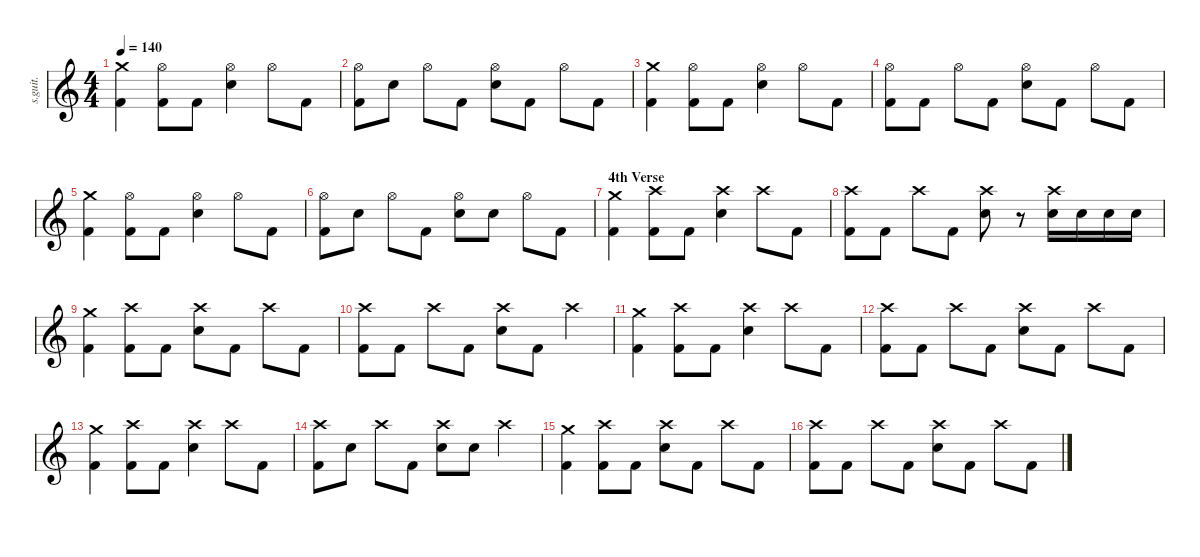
\defaultSystemsLayout 4
\hideDynamics
\bracketExtendMode nobrackets
\track ("Abe Cunningham" "s.guit.") {instrument percussion}
\staff {score}
\articulation defaults
\ts (4 4)
\tempo 140
\clef g2
\ks c
("Crash medium (hit)" "Kick (hit) 2").4{lyrics (0 "") lyrics (1 "") lyrics (2 "") lyrics (3 "") lyrics (4 "") dy fff} ("Hi-Hat (open)" "Kick (hit) 2").8{lyrics (0 "") lyrics (1 "") lyrics (2 "") lyrics (3 "") lyrics (4 "")} "Kick (hit) 2".8{lyrics (0 "") lyrics (1 "") lyrics (2 "") lyrics (3 "") lyrics (4 "")} ("Hi-Hat (open)" "Snare (hit) 2").4{lyrics (0 "") lyrics (1 "") lyrics (2 "") lyrics (3 "") lyrics (4 "")} "Hi-Hat (open)".8{lyrics (0 "") lyrics (1 "") lyrics (2 "") lyrics (3 "") lyrics (4 "")} "Kick (hit) 2".8{lyrics (0 "") lyrics (1 "") lyrics (2 "") lyrics (3 "") lyrics (4 "")} |
("Hi-Hat (open)" "Kick (hit) 2").8{lyrics (0 "") lyrics (1 "") lyrics (2 "") lyrics (3 "") lyrics (4 "")} "Snare (hit) 2".8{lyrics (0 "") lyrics (1 "") lyrics (2 "") lyrics (3 "") lyrics (4 "")} "Hi-Hat (open)".8{lyrics (0 "") lyrics (1 "") lyrics (2 "") lyrics (3 "") lyrics (4 "")} "Kick (hit) 2".8{lyrics (0 "") lyrics (1 "") lyrics (2 "") lyrics (3 "") lyrics (4 "")} ("Hi-Hat (open)" "Snare (hit) 2").8{lyrics (0 "") lyrics (1 "") lyrics (2 "") lyrics (3 "") lyrics (4 "")} "Kick (hit) 2".8{lyrics (0 "") lyrics (1 "") lyrics (2 "") lyrics (3 "") lyrics (4 "")} "Hi-Hat (open)".8{lyrics (0 "") lyrics (1 "") lyrics (2 "") lyrics (3 "") lyrics (4 "")} "Kick (hit) 2".8{lyrics (0 "") lyrics (1 "") lyrics (2 "") lyrics (3 "") lyrics (4 "")} |
("Crash medium (hit)" "Kick (hit) 2").4{lyrics (0 "") lyrics (1 "") lyrics (2 "") lyrics (3 "") lyrics (4 "")} ("Hi-Hat (open)" "Kick (hit) 2").8{lyrics (0 "") lyrics (1 "") lyrics (2 "") lyrics (3 "") lyrics (4 "")} "Kick (hit) 2".8{lyrics (0 "") lyrics (1 "") lyrics (2 "") lyrics (3 "") lyrics (4 "")} ("Hi-Hat (open)" "Snare (hit) 2").4{lyrics (0 "") lyrics (1 "") lyrics (2 "") lyrics (3 "") lyrics (4 "")} "Hi-Hat (open)".8{lyrics (0 "") lyrics (1 "") lyrics (2 "") lyrics (3 "") lyrics (4 "")} "Kick (hit) 2".8{lyrics (0 "") lyrics (1 "") lyrics (2 "") lyrics (3 "") lyrics (4 "")} |
("Hi-Hat (open)" "Kick (hit) 2").8{lyrics (0 "") lyrics (1 "") lyrics (2 "") lyrics (3 "") lyrics (4 "")} "Kick (hit) 2".8{lyrics (0 "") lyrics (1 "") lyrics (2 "") lyrics (3 "") lyrics (4 "")} "Hi-Hat (open)".8{lyrics (0 "") lyrics (1 "") lyrics (2 "") lyrics (3 "") lyrics (4 "")} "Kick (hit) 2".8{lyrics (0 "") lyrics (1 "") lyrics (2 "") lyrics (3 "") lyrics (4 "")} ("Hi-Hat (open)" "Snare (hit) 2").8{lyrics (0 "") lyrics (1 "") lyrics (2 "") lyrics (3 "") lyrics (4 "")} "Kick (hit) 2".8{lyrics (0 "") lyrics (1 "") lyrics (2 "") lyrics (3 "") lyrics (4 "")} "Hi-Hat (open)".8{lyrics (0 "") lyrics (1 "") lyrics (2 "") lyrics (3 "") lyrics (4 "")} "Kick (hit) 2".8{lyrics (0 "") lyrics (1 "") lyrics (2 "") lyrics (3 "") lyrics (4 "")} |
("Crash medium (hit)" "Kick (hit) 2").4{lyrics (0 "") lyrics (1 "") lyrics (2 "") lyrics (3 "") lyrics (4 "")} ("Hi-Hat (open)" "Kick (hit) 2").8{lyrics (0 "") lyrics (1 "") lyrics (2 "") lyrics (3 "") lyrics (4 "")} "Kick (hit) 2".8{lyrics (0 "") lyrics (1 "") lyrics (2 "") lyrics (3 "") lyrics (4 "")} ("Hi-Hat (open)" "Snare (hit) 2").4{lyrics (0 "") lyrics (1 "") lyrics (2 "") lyrics (3 "") lyrics (4 "")} "Hi-Hat (open)".8{lyrics (0 "") lyrics (1 "") lyrics (2 "") lyrics (3 "") lyrics (4 "")} "Kick (hit) 2".8{lyrics (0 "") lyrics (1 "") lyrics (2 "") lyrics (3 "") lyrics (4 "")} |
("Hi-Hat (open)" "Kick (hit) 2").8{lyrics (0 "") lyrics (1 "") lyrics (2 "") lyrics (3 "") lyrics (4 "")} "Snare (hit) 2".8{lyrics (0 "") lyrics (1 "") lyrics (2 "") lyrics (3 "") lyrics (4 "")} "Hi-Hat (open)".8{lyrics (0 "") lyrics (1 "") lyrics (2 "") lyrics (3 "") lyrics (4 "")} "Kick (hit) 2".8{lyrics (0 "") lyrics (1 "") lyrics (2 "") lyrics (3 "") lyrics (4 "")} ("Hi-Hat (open)" "Snare (hit) 2").8{lyrics (0 "") lyrics (1 "") lyrics (2 "") lyrics (3 "") lyrics (4 "")} "Snare (hit) 2".8{lyrics (0 "") lyrics (1 "") lyrics (2 "") lyrics (3 "") lyrics (4 "")} "Hi-Hat (open)".8{lyrics (0 "") lyrics (1 "") lyrics (2 "") lyrics (3 "") lyrics (4 "")} "Kick (hit) 2".8{lyrics (0 "") lyrics (1 "") lyrics (2 "") lyrics (3 "") lyrics (4 "")} |
\section ("" "4th Verse")
("Crash medium (hit)" "Kick (hit) 2").4{lyrics (0 "") lyrics (1 "") lyrics (2 "") lyrics (3 "") lyrics (4 "")} ("Crash high (hit)" "Kick (hit) 2").8{lyrics (0 "") lyrics (1 "") lyrics (2 "") lyrics (3 "") lyrics (4 "")} "Kick (hit) 2".8{lyrics (0 "") lyrics (1 "") lyrics (2 "") lyrics (3 "") lyrics (4 "")} ("Crash high (hit)" "Snare (hit) 2").4{lyrics (0 "") lyrics (1 "") lyrics (2 "") lyrics (3 "") lyrics (4 "")} "Crash high (hit)".8{lyrics (0 "") lyrics (1 "") lyrics (2 "") lyrics (3 "") lyrics (4 "")} "Kick (hit) 2".8{lyrics (0 "") lyrics (1 "") lyrics (2 "") lyrics (3 "") lyrics (4 "")} |
("Crash high (hit)" "Kick (hit) 2").8{lyrics (0 "") lyrics (1 "") lyrics (2 "") lyrics (3 "") lyrics (4 "")} "Kick (hit) 2".8{lyrics (0 "") lyrics (1 "") lyrics (2 "") lyrics (3 "") lyrics (4 "")} "Crash high (hit)".8{lyrics (0 "") lyrics (1 "") lyrics (2 "") lyrics (3 "") lyrics (4 "")} "Kick (hit) 2".8{lyrics (0 "") lyrics (1 "") lyrics (2 "") lyrics (3 "") lyrics (4 "")} ("Crash high (hit)" "Snare (hit) 2").8{lyrics (0 "") lyrics (1 "") lyrics (2 "") lyrics (3 "") lyrics (4 "")} r.8 ("Crash high (hit)" "Snare (hit) 2").16{lyrics (0 "") lyrics (1 "") lyrics (2 "") lyrics (3 "") lyrics (4 "")} "Snare (hit) 2".16{lyrics (0 "") lyrics (1 "") lyrics (2 "") lyrics (3 "") lyrics (4 "")} "Snare (hit) 2".16{lyrics (0 "") lyrics (1 "") lyrics (2 "") lyrics (3 "") lyrics (4 "")} "Snare (hit) 2".16{lyrics (0 "") lyrics (1 "") lyrics (2 "") lyrics (3 "") lyrics (4 "")} |
("Crash medium (hit)" "Kick (hit) 2").4{lyrics (0 "") lyrics (1 "") lyrics (2 "") lyrics (3 "") lyrics (4 "")} ("Crash high (hit)" "Kick (hit) 2").8{lyrics (0 "") lyrics (1 "") lyrics (2 "") lyrics (3 "") lyrics (4 "")} "Kick (hit) 2".8{lyrics (0 "") lyrics (1 "") lyrics (2 "") lyrics (3 "") lyrics (4 "")} ("Crash high (hit)" "Snare (hit) 2").8{lyrics (0 "") lyrics (1 "") lyrics (2 "") lyrics (3 "") lyrics (4 "")} "Kick (hit) 2".8{lyrics (0 "") lyrics (1 "") lyrics (2 "") lyrics (3 "") lyrics (4 "")} "Crash high (hit)".8{lyrics (0 "") lyrics (1 "") lyrics (2 "") lyrics (3 "") lyrics (4 "")} "Kick (hit) 2".8{lyrics (0 "") lyrics (1 "") lyrics (2 "") lyrics (3 "") lyrics (4 "")} |
("Crash high (hit)" "Kick (hit) 2").8{lyrics (0 "") lyrics (1 "") lyrics (2 "") lyrics (3 "") lyrics (4 "")} "Kick (hit) 2".8{lyrics (0 "") lyrics (1 "") lyrics (2 "") lyrics (3 "") lyrics (4 "")} "Crash high (hit)".8{lyrics (0 "") lyrics (1 "") lyrics (2 "") lyrics (3 "") lyrics (4 "")} "Kick (hit) 2".8{lyrics (0 "") lyrics (1 "") lyrics (2 "") lyrics (3 "") lyrics (4 "")} ("Crash high (hit)" "Snare (hit) 2").8{lyrics (0 "") lyrics (1 "") lyrics (2 "") lyrics (3 "") lyrics (4 "")} "Kick (hit) 2".8{lyrics (0 "") lyrics (1 "") lyrics (2 "") lyrics (3 "") lyrics (4 "")} "Crash high (hit)".4{lyrics (0 "") lyrics (1 "") lyrics (2 "") lyrics (3 "") lyrics (4 "")} |
("Crash medium (hit)" "Kick (hit) 2").4{lyrics (0 "") lyrics (1 "") lyrics (2 "") lyrics (3 "") lyrics (4 "")} ("Crash high (hit)" "Kick (hit) 2").8{lyrics (0 "") lyrics (1 "") lyrics (2 "") lyrics (3 "") lyrics (4 "")} "Kick (hit) 2".8{lyrics (0 "") lyrics (1 "") lyrics (2 "") lyrics (3 "") lyrics (4 "")} ("Crash high (hit)" "Snare (hit) 2").4{lyrics (0 "") lyrics (1 "") lyrics (2 "") lyrics (3 "") lyrics (4 "")} "Crash high (hit)".8{lyrics (0 "") lyrics (1 "") lyrics (2 "") lyrics (3 "") lyrics (4 "")} "Kick (hit) 2".8{lyrics (0 "") lyrics (1 "") lyrics (2 "") lyrics (3 "") lyrics (4 "")} |
("Crash high (hit)" "Kick (hit) 2").8{lyrics (0 "") lyrics (1 "") lyrics (2 "") lyrics (3 "") lyrics (4 "")} "Kick (hit) 2".8{lyrics (0 "") lyrics (1 "") lyrics (2 "") lyrics (3 "") lyrics (4 "")} "Crash high (hit)".8{lyrics (0 "") lyrics (1 "") lyrics (2 "") lyrics (3 "") lyrics (4 "")} "Kick (hit) 2".8{lyrics (0 "") lyrics (1 "") lyrics (2 "") lyrics (3 "") lyrics (4 "")} ("Crash high (hit)" "Snare (hit) 2").8{lyrics (0 "") lyrics (1 "") lyrics (2 "") lyrics (3 "") lyrics (4 "")} "Kick (hit) 2".8{lyrics (0 "") lyrics (1 "") lyrics (2 "") lyrics (3 "") lyrics (4 "")} "Crash high (hit)".8{lyrics (0 "") lyrics (1 "") lyrics (2 "") lyrics (3 "") lyrics (4 "")} "Kick (hit) 2".8{lyrics (0 "") lyrics (1 "") lyrics (2 "") lyrics (3 "") lyrics (4 "")} |
("Crash medium (hit)" "Kick (hit) 2").4{lyrics (0 "") lyrics (1 "") lyrics (2 "") lyrics (3 "") lyrics (4 "")} ("Crash high (hit)" "Kick (hit) 2").8{lyrics (0 "") lyrics (1 "") lyrics (2 "") lyrics (3 "") lyrics (4 "")} "Kick (hit) 2".8{lyrics (0 "") lyrics (1 "") lyrics (2 "") lyrics (3 "") lyrics (4 "")} ("Crash high (hit)" "Snare (hit) 2").4{lyrics (0 "") lyrics (1 "") lyrics (2 "") lyrics (3 "") lyrics (4 "")} "Crash high (hit)".8{lyrics (0 "") lyrics (1 "") lyrics (2 "") lyrics (3 "") lyrics (4 "")} "Kick (hit) 2".8{lyrics (0 "") lyrics (1 "") lyrics (2 "") lyrics (3 "") lyrics (4 "")} |
("Crash high (hit)" "Kick (hit) 2").8{lyrics (0 "") lyrics (1 "") lyrics (2 "") lyrics (3 "") lyrics (4 "")} "Snare (hit) 2".8{lyrics (0 "") lyrics (1 "") lyrics (2 "") lyrics (3 "") lyrics (4 "")} "Crash high (hit)".8{lyrics (0 "") lyrics (1 "") lyrics (2 "") lyrics (3 "") lyrics (4 "")} "Kick (hit) 2".8{lyrics (0 "") lyrics (1 "") lyrics (2 "") lyrics (3 "") lyrics (4 "")} ("Crash high (hit)" "Snare (hit) 2").8{lyrics (0 "") lyrics (1 "") lyrics (2 "") lyrics (3 "") lyrics (4 "")} "Snare (hit) 2".8{lyrics (0 "") lyrics (1 "") lyrics (2 "") lyrics (3 "") lyrics (4 "")} "Crash high (hit)".4{lyrics (0 "") lyrics (1 "") lyrics (2 "") lyrics (3 "") lyrics (4 "")} |
("Crash medium (hit)" "Kick (hit) 2").4{lyrics (0 "") lyrics (1 "") lyrics (2 "") lyrics (3 "") lyrics (4 "")} ("Crash high (hit)" "Kick (hit) 2").8{lyrics (0 "") lyrics (1 "") lyrics (2 "") lyrics (3 "") lyrics (4 "")} "Kick (hit) 2".8{lyrics (0 "") lyrics (1 "") lyrics (2 "") lyrics (3 "") lyrics (4 "")} ("Crash high (hit)" "Snare (hit) 2").8{lyrics (0 "") lyrics (1 "") lyrics (2 "") lyrics (3 "") lyrics (4 "")} "Kick (hit) 2".8{lyrics (0 "") lyrics (1 "") lyrics (2 "") lyrics (3 "") lyrics (4 "")} "Crash high (hit)".8{lyrics (0 "") lyrics (1 "") lyrics (2 "") lyrics (3 "") lyrics (4 "")} "Kick (hit) 2".8{lyrics (0 "") lyrics (1 "") lyrics (2 "") lyrics (3 "") lyrics (4 "")} |
("Crash high (hit)" "Kick (hit) 2").8{lyrics (0 "") lyrics (1 "") lyrics (2 "") lyrics (3 "") lyrics (4 "")} "Kick (hit) 2".8{lyrics (0 "") lyrics (1 "") lyrics (2 "") lyrics (3 "") lyrics (4 "")} "Crash high (hit)".8{lyrics (0 "") lyrics (1 "") lyrics (2 "") lyrics (3 "") lyrics (4 "")} "Kick (hit) 2".8{lyrics (0 "") lyrics (1 "") lyrics (2 "") lyrics (3 "") lyrics (4 "")} ("Crash high (hit)" "Snare (hit) 2").8{lyrics (0 "") lyrics (1 "") lyrics (2 "") lyrics (3 "") lyrics (4 "")} "Kick (hit) 2".8{lyrics (0 "") lyrics (1 "") lyrics (2 "") lyrics (3 "") lyrics (4 "")} "Crash high (hit)".8{lyrics (0 "") lyrics (1 "") lyrics (2 "") lyrics (3 "") lyrics (4 "")} "Kick (hit) 2".8{lyrics (0 "") lyrics (1 "") lyrics (2 "") lyrics (3 "") lyrics (4 "")}
